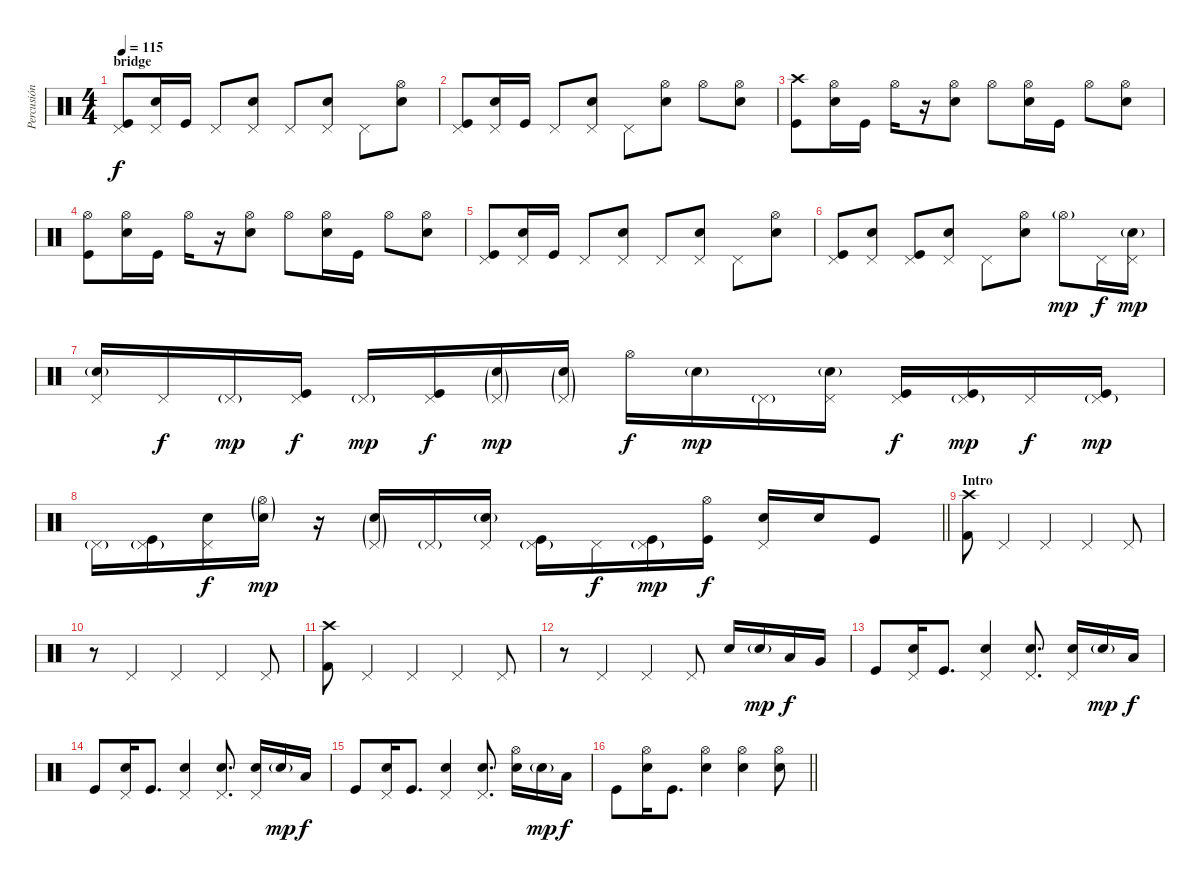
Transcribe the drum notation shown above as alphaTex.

\track ("Percusión" "Percusión") {instrument percussion}
\staff {score}
\articulation defaults
\ts (4 4)
\section ("" "bridge")
\tempo 115
\clef neutral
\ks c
("Kick (hit)" "Pedal Hi-Hat (hit)").8{dy f} ("Electric Snare (hit)" "Pedal Hi-Hat (hit)").16 "Kick (hit)".16 "Pedal Hi-Hat (hit)".8 ("Electric Snare (hit)" "Pedal Hi-Hat (hit)").8 "Pedal Hi-Hat (hit)".8 ("Electric Snare (hit)" "Pedal Hi-Hat (hit)").8 "Pedal Hi-Hat (hit)".8 ("Electric Snare (hit)" "Hi-Hat (open)").8 |
("Kick (hit)" "Pedal Hi-Hat (hit)").8 ("Electric Snare (hit)" "Pedal Hi-Hat (hit)").16 "Kick (hit)".16 "Pedal Hi-Hat (hit)".8 ("Electric Snare (hit)" "Pedal Hi-Hat (hit)").8 "Pedal Hi-Hat (hit)".8 ("Electric Snare (hit)" "Hi-Hat (open)").8 "Hi-Hat (open)".8 ("Electric Snare (hit)" "Hi-Hat (open)").8 |
("Kick (hit)" "Crash high (hit)").8 ("Electric Snare (hit)" "Hi-Hat (open)").16 "Kick (hit)".16 "Hi-Hat (open)".16 r.16 ("Electric Snare (hit)" "Hi-Hat (open)").8 "Hi-Hat (open)".8 ("Electric Snare (hit)" "Hi-Hat (open)").16 "Kick (hit)".16 "Hi-Hat (open)".8 ("Electric Snare (hit)" "Hi-Hat (open)").8 |
("Kick (hit)" "Hi-Hat (open)").8 ("Electric Snare (hit)" "Hi-Hat (open)").16 "Kick (hit)".16 "Hi-Hat (open)".16 r.16 ("Electric Snare (hit)" "Hi-Hat (open)").8 "Hi-Hat (open)".8 ("Electric Snare (hit)" "Hi-Hat (open)").16 "Kick (hit)".16 "Hi-Hat (open)".8 ("Electric Snare (hit)" "Hi-Hat (open)").8 |
("Kick (hit)" "Pedal Hi-Hat (hit)").8 ("Electric Snare (hit)" "Pedal Hi-Hat (hit)").16 "Kick (hit)".16 "Pedal Hi-Hat (hit)".8 ("Electric Snare (hit)" "Pedal Hi-Hat (hit)").8 "Pedal Hi-Hat (hit)".8 ("Electric Snare (hit)" "Pedal Hi-Hat (hit)").8 "Pedal Hi-Hat (hit)".8 ("Electric Snare (hit)" "Hi-Hat (open)").8 |
("Kick (hit)" "Pedal Hi-Hat (hit)").8 ("Electric Snare (hit)" "Pedal Hi-Hat (hit)").8 ("Kick (hit)" "Pedal Hi-Hat (hit)").8 ("Electric Snare (hit)" "Pedal Hi-Hat (hit)").8 "Pedal Hi-Hat (hit)".8 ("Electric Snare (hit)" "Hi-Hat (open)").8 "Hi-Hat (open)"{g}.8{dy mp} "Pedal Hi-Hat (hit)".16{dy f} ("Electric Snare (hit)"{g} "Pedal Hi-Hat (hit)").16{dy mp} |
("Electric Snare (hit)"{g} "Pedal Hi-Hat (hit)").16 "Pedal Hi-Hat (hit)".16{dy f} "Pedal Hi-Hat (hit)"{g}.16{dy mp} ("Kick (hit)" "Pedal Hi-Hat (hit)").16{dy f} "Pedal Hi-Hat (hit)"{g}.16{dy mp} ("Kick (hit)" "Pedal Hi-Hat (hit)").16{dy f} ("Electric Snare (hit)"{g} "Pedal Hi-Hat (hit)"{g}).16{dy mp} ("Electric Snare (hit)"{g} "Pedal Hi-Hat (hit)"{g}).16 "Hi-Hat (open)".16{dy f} "Electric Snare (hit)"{g}.16{dy mp} "Pedal Hi-Hat (hit)"{g}.16 ("Electric Snare (hit)"{g} "Pedal Hi-Hat (hit)").16 ("Kick (hit)" "Pedal Hi-Hat (hit)").16{dy f} ("Kick (hit)" "Pedal Hi-Hat (hit)"{g}).16{dy mp} "Pedal Hi-Hat (hit)".16{dy f} ("Kick (hit)" "Pedal Hi-Hat (hit)"{g}).16{dy mp} |
\barLineRight lightlight "Pedal Hi-Hat (hit)"{g}.16
("Kick (hit)" "Pedal Hi-Hat (hit)"{g}).16 ("Electric Snare (hit)" "Pedal Hi-Hat (hit)").16{dy f} ("Electric Snare (hit)"{g} "Hi-Hat (open)"{g}).16{dy mp} r.16 ("Electric Snare (hit)"{g} "Pedal Hi-Hat (hit)"{g}).16 "Pedal Hi-Hat (hit)"{g}.16 ("Electric Snare (hit)"{g} "Pedal Hi-Hat (hit)").16 ("Kick (hit)" "Pedal Hi-Hat (hit)"{g}).16 "Pedal Hi-Hat (hit)".16{dy f} ("Kick (hit)" "Pedal Hi-Hat (hit)"{g}).16{dy mp} ("Kick (hit)" "Hi-Hat (open)").16{dy f} ("Electric Snare (hit)" "Pedal Hi-Hat (hit)").16 "Electric Snare (hit)".16 "Kick (hit)".8 |
\section ("" "Intro")
("Kick (hit) 2" "Crash high (hit)").8 "Pedal Hi-Hat (hit)".4 "Pedal Hi-Hat (hit)".4 "Pedal Hi-Hat (hit)".4 "Pedal Hi-Hat (hit)".8 |
r.8 "Pedal Hi-Hat (hit)".4 "Pedal Hi-Hat (hit)".4 "Pedal Hi-Hat (hit)".4 "Pedal Hi-Hat (hit)".8 |
("Kick (hit) 2" "Crash high (hit)").8 "Pedal Hi-Hat (hit)".4 "Pedal Hi-Hat (hit)".4 "Pedal Hi-Hat (hit)".4 "Pedal Hi-Hat (hit)".8 |
r.8 "Pedal Hi-Hat (hit)".4 "Pedal Hi-Hat (hit)".4 "Pedal Hi-Hat (hit)".8 "Electric Snare (hit)".16 "Electric Snare (hit)"{g}.16{dy mp} "Low Tom (hit)".16{dy f} "Very Low Tom (hit)".16 |
"Kick (hit)".8 ("Electric Snare (hit)" "Pedal Hi-Hat (hit)").16 "Kick (hit)".8{d} ("Electric Snare (hit)" "Pedal Hi-Hat (hit)").4 ("Electric Snare (hit)" "Pedal Hi-Hat (hit)").8{d} ("Electric Snare (hit)" "Pedal Hi-Hat (hit)").16 "Electric Snare (hit)"{g}.16{dy mp} "Low Tom (hit)".16{dy f} |
"Kick (hit)".8 ("Electric Snare (hit)" "Pedal Hi-Hat (hit)").16 "Kick (hit)".8{d} ("Electric Snare (hit)" "Pedal Hi-Hat (hit)").4 ("Electric Snare (hit)" "Pedal Hi-Hat (hit)").8{d} ("Electric Snare (hit)" "Pedal Hi-Hat (hit)").16 "Electric Snare (hit)"{g}.16{dy mp} "Low Tom (hit)".16{dy f} |
"Kick (hit)".8 ("Electric Snare (hit)" "Pedal Hi-Hat (hit)").16 "Kick (hit)".8{d} ("Electric Snare (hit)" "Pedal Hi-Hat (hit)").4 ("Electric Snare (hit)" "Pedal Hi-Hat (hit)").8{d} ("Electric Snare (hit)" "Hi-Hat (open)").16 "Electric Snare (hit)"{g}.16{dy mp} "Low Tom (hit)".16{dy f} |
\barLineRight lightlight "Kick (hit)".8
("Electric Snare (hit)" "Hi-Hat (open)").16 "Kick (hit)".8{d} ("Electric Snare (hit)" "Hi-Hat (open)").4 ("Electric Snare (hit)" "Hi-Hat (open)").4 ("Electric Snare (hit)" "Hi-Hat (open)").8
